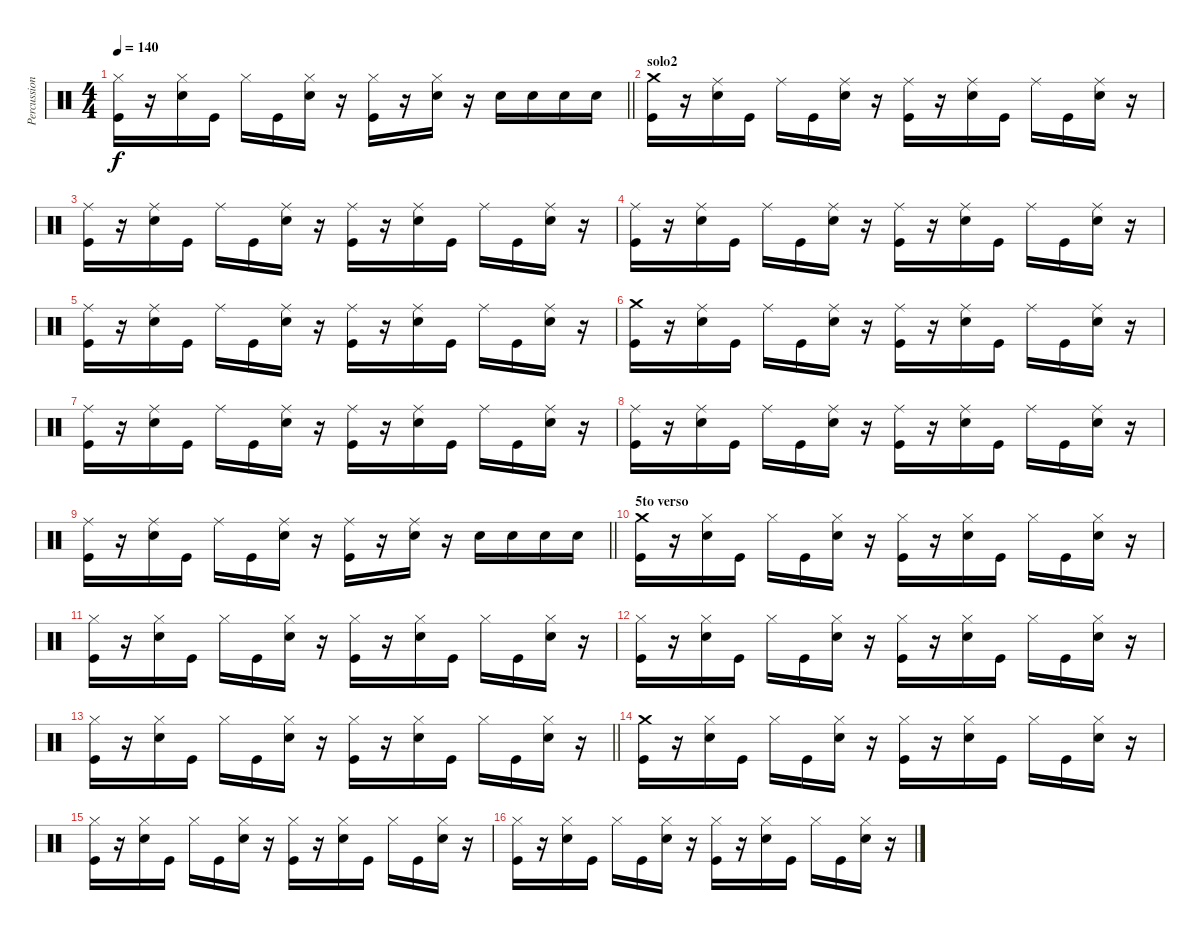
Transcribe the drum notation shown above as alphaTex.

\track ("Percussion" "Percussion") {instrument percussion}
\staff {score}
\articulation defaults
\ts (4 4)
\tempo 140
\clef neutral
\barLineRight lightlight
\ks c
("Hi-Hat (closed)" "Kick (hit)").16{dy f} r.16 ("Hi-Hat (closed)" "Snare (hit) 2").16 "Kick (hit)".16 "Hi-Hat (closed)".16 "Kick (hit)".16 ("Hi-Hat (closed)" "Snare (hit) 2").16 r.16 ("Hi-Hat (closed)" "Kick (hit)").16 r.16 ("Hi-Hat (closed)" "Snare (hit) 2").16 r.16 "Snare (hit) 2".16 "Snare (hit) 2".16 "Snare (hit) 2".16 "Snare (hit) 2".16 |
\section ("" "solo2")
("Crash medium (hit)" "Kick (hit)").16 r.16 ("Ride (middle)" "Snare (hit) 2").16 "Kick (hit)".16 "Ride (middle)".16 "Kick (hit)".16 ("Ride (middle)" "Snare (hit) 2").16 r.16 ("Ride (middle)" "Kick (hit)").16 r.16 ("Ride (middle)" "Snare (hit) 2").16 "Kick (hit)".16 "Ride (middle)".16 "Kick (hit)".16 ("Ride (middle)" "Snare (hit) 2").16 r.16 |
("Ride (middle)" "Kick (hit)").16 r.16 ("Ride (middle)" "Snare (hit) 2").16 "Kick (hit)".16 "Ride (middle)".16 "Kick (hit)".16 ("Ride (middle)" "Snare (hit) 2").16 r.16 ("Ride (middle)" "Kick (hit)").16 r.16 ("Ride (middle)" "Snare (hit) 2").16 "Kick (hit)".16 "Ride (middle)".16 "Kick (hit)".16 ("Ride (middle)" "Snare (hit) 2").16 r.16 |
("Ride (middle)" "Kick (hit)").16 r.16 ("Ride (middle)" "Snare (hit) 2").16 "Kick (hit)".16 "Ride (middle)".16 "Kick (hit)".16 ("Ride (middle)" "Snare (hit) 2").16 r.16 ("Ride (middle)" "Kick (hit)").16 r.16 ("Ride (middle)" "Snare (hit) 2").16 "Kick (hit)".16 "Ride (middle)".16 "Kick (hit)".16 ("Ride (middle)" "Snare (hit) 2").16 r.16 |
("Ride (middle)" "Kick (hit)").16 r.16 ("Ride (middle)" "Snare (hit) 2").16 "Kick (hit)".16 "Ride (middle)".16 "Kick (hit)".16 ("Ride (middle)" "Snare (hit) 2").16 r.16 ("Ride (middle)" "Kick (hit)").16 r.16 ("Ride (middle)" "Snare (hit) 2").16 "Kick (hit)".16 "Ride (middle)".16 "Kick (hit)".16 ("Ride (middle)" "Snare (hit) 2").16 r.16 |
("Crash medium (hit)" "Kick (hit)").16 r.16 ("Ride (middle)" "Snare (hit) 2").16 "Kick (hit)".16 "Ride (middle)".16 "Kick (hit)".16 ("Ride (middle)" "Snare (hit) 2").16 r.16 ("Ride (middle)" "Kick (hit)").16 r.16 ("Ride (middle)" "Snare (hit) 2").16 "Kick (hit)".16 "Ride (middle)".16 "Kick (hit)".16 ("Ride (middle)" "Snare (hit) 2").16 r.16 |
("Ride (middle)" "Kick (hit)").16 r.16 ("Ride (middle)" "Snare (hit) 2").16 "Kick (hit)".16 "Ride (middle)".16 "Kick (hit)".16 ("Ride (middle)" "Snare (hit) 2").16 r.16 ("Ride (middle)" "Kick (hit)").16 r.16 ("Ride (middle)" "Snare (hit) 2").16 "Kick (hit)".16 "Ride (middle)".16 "Kick (hit)".16 ("Ride (middle)" "Snare (hit) 2").16 r.16 |
("Ride (middle)" "Kick (hit)").16 r.16 ("Ride (middle)" "Snare (hit) 2").16 "Kick (hit)".16 "Ride (middle)".16 "Kick (hit)".16 ("Ride (middle)" "Snare (hit) 2").16 r.16 ("Ride (middle)" "Kick (hit)").16 r.16 ("Ride (middle)" "Snare (hit) 2").16 "Kick (hit)".16 "Ride (middle)".16 "Kick (hit)".16 ("Ride (middle)" "Snare (hit) 2").16 r.16 |
\barLineRight lightlight
("Ride (middle)" "Kick (hit)").16 r.16 ("Ride (middle)" "Snare (hit) 2").16 "Kick (hit)".16 "Ride (middle)".16 "Kick (hit)".16 ("Ride (middle)" "Snare (hit) 2").16 r.16 ("Ride (middle)" "Kick (hit)").16 r.16 ("Ride (middle)" "Snare (hit) 2").16 r.16 "Snare (hit) 2".16 "Snare (hit) 2".16 "Snare (hit) 2".16 "Snare (hit) 2".16 |
\section ("" "5to verso")
("Crash medium (hit)" "Kick (hit)").16 r.16 ("Hi-Hat (closed)" "Snare (hit) 2").16 "Kick (hit)".16 "Hi-Hat (closed)".16 "Kick (hit)".16 ("Hi-Hat (closed)" "Snare (hit) 2").16 r.16 ("Hi-Hat (closed)" "Kick (hit)").16 r.16 ("Hi-Hat (closed)" "Snare (hit) 2").16 "Kick (hit)".16 "Hi-Hat (closed)".16 "Kick (hit)".16 ("Hi-Hat (closed)" "Snare (hit) 2").16 r.16 |
("Hi-Hat (closed)" "Kick (hit)").16 r.16 ("Hi-Hat (closed)" "Snare (hit) 2").16 "Kick (hit)".16 "Hi-Hat (closed)".16 "Kick (hit)".16 ("Hi-Hat (closed)" "Snare (hit) 2").16 r.16 ("Hi-Hat (closed)" "Kick (hit)").16 r.16 ("Hi-Hat (closed)" "Snare (hit) 2").16 "Kick (hit)".16 "Hi-Hat (closed)".16 "Kick (hit)".16 ("Hi-Hat (closed)" "Snare (hit) 2").16 r.16 |
("Hi-Hat (closed)" "Kick (hit)").16 r.16 ("Hi-Hat (closed)" "Snare (hit) 2").16 "Kick (hit)".16 "Hi-Hat (closed)".16 "Kick (hit)".16 ("Hi-Hat (closed)" "Snare (hit) 2").16 r.16 ("Hi-Hat (closed)" "Kick (hit)").16 r.16 ("Hi-Hat (closed)" "Snare (hit) 2").16 "Kick (hit)".16 "Hi-Hat (closed)".16 "Kick (hit)".16 ("Hi-Hat (closed)" "Snare (hit) 2").16 r.16 |
\barLineRight lightlight
("Hi-Hat (closed)" "Kick (hit)").16 r.16 ("Hi-Hat (closed)" "Snare (hit) 2").16 "Kick (hit)".16 "Hi-Hat (closed)".16 "Kick (hit)".16 ("Hi-Hat (closed)" "Snare (hit) 2").16 r.16 ("Hi-Hat (closed)" "Kick (hit)").16 r.16 ("Hi-Hat (closed)" "Snare (hit) 2").16 "Kick (hit)".16 "Hi-Hat (closed)".16 "Kick (hit)".16 ("Hi-Hat (closed)" "Snare (hit) 2").16 r.16 |
("Crash medium (hit)" "Kick (hit)").16 r.16 ("Hi-Hat (closed)" "Snare (hit) 2").16 "Kick (hit)".16 "Hi-Hat (closed)".16 "Kick (hit)".16 ("Hi-Hat (closed)" "Snare (hit) 2").16 r.16 ("Hi-Hat (closed)" "Kick (hit)").16 r.16 ("Hi-Hat (closed)" "Snare (hit) 2").16 "Kick (hit)".16 "Hi-Hat (closed)".16 "Kick (hit)".16 ("Hi-Hat (closed)" "Snare (hit) 2").16 r.16 |
("Hi-Hat (closed)" "Kick (hit)").16 r.16 ("Hi-Hat (closed)" "Snare (hit) 2").16 "Kick (hit)".16 "Hi-Hat (closed)".16 "Kick (hit)".16 ("Hi-Hat (closed)" "Snare (hit) 2").16 r.16 ("Hi-Hat (closed)" "Kick (hit)").16 r.16 ("Hi-Hat (closed)" "Snare (hit) 2").16 "Kick (hit)".16 "Hi-Hat (closed)".16 "Kick (hit)".16 ("Hi-Hat (closed)" "Snare (hit) 2").16 r.16 |
("Hi-Hat (closed)" "Kick (hit)").16 r.16 ("Hi-Hat (closed)" "Snare (hit) 2").16 "Kick (hit)".16 "Hi-Hat (closed)".16 "Kick (hit)".16 ("Hi-Hat (closed)" "Snare (hit) 2").16 r.16 ("Hi-Hat (closed)" "Kick (hit)").16 r.16 ("Hi-Hat (closed)" "Snare (hit) 2").16 "Kick (hit)".16 "Hi-Hat (closed)".16 "Kick (hit)".16 ("Hi-Hat (closed)" "Snare (hit) 2").16 r.16
